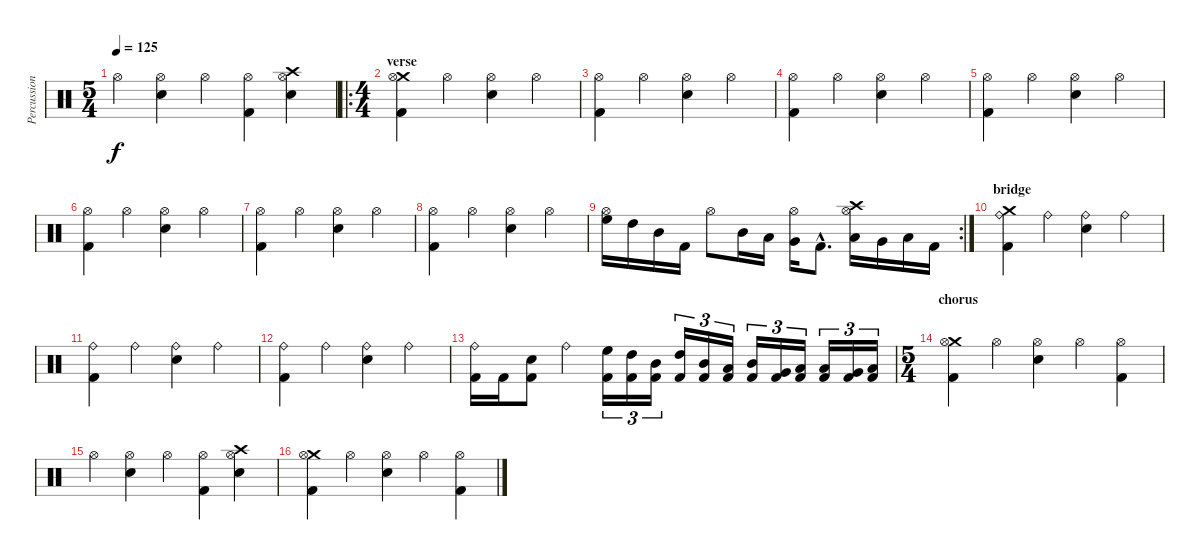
\track ("Percussion" "Percussion") {instrument percussion}
\staff {score}
\articulation defaults
\ts (5 4)
\tempo 125
\clef neutral
\ks c "Hi-Hat (open)".4{dy f}
("Hi-Hat (open)" "Electric Snare (hit)").4 "Hi-Hat (open)".4 ("Hi-Hat (open)" "Kick (hit) 2").4 ("Crash high (hit)" "Hi-Hat (open)" "Electric Snare (hit)").4 |
\ro
\ts (4 4)
\section ("" "verse")
("Crash medium (hit)" "Hi-Hat (open)" "Kick (hit) 2").4 "Hi-Hat (open)".4 ("Hi-Hat (open)" "Electric Snare (hit)").4 "Hi-Hat (open)".4 |
("Hi-Hat (open)" "Kick (hit) 2").4 "Hi-Hat (open)".4 ("Hi-Hat (open)" "Electric Snare (hit)").4 "Hi-Hat (open)".4 |
("Hi-Hat (open)" "Kick (hit) 2").4 "Hi-Hat (open)".4 ("Hi-Hat (open)" "Electric Snare (hit)").4 "Hi-Hat (open)".4 |
("Hi-Hat (open)" "Kick (hit) 2").4 "Hi-Hat (open)".4 ("Hi-Hat (open)" "Electric Snare (hit)").4 "Hi-Hat (open)".4 |
("Hi-Hat (open)" "Kick (hit) 2").4 "Hi-Hat (open)".4 ("Hi-Hat (open)" "Electric Snare (hit)").4 "Hi-Hat (open)".4 |
("Hi-Hat (open)" "Kick (hit) 2").4 "Hi-Hat (open)".4 ("Hi-Hat (open)" "Electric Snare (hit)").4 "Hi-Hat (open)".4 |
("Hi-Hat (open)" "Kick (hit) 2").4 "Hi-Hat (open)".4 ("Hi-Hat (open)" "Electric Snare (hit)").4 "Hi-Hat (open)".4 |
\rc 2
("Hi-Hat (open)" "High Floor Tom (hit)").16 "High Tom (hit)".16 "Mid Tom (hit)".16 "Kick (hit) 2".16 "Hi-Hat (open)".8 "Mid Tom (hit)".16 "Low Tom (hit)".16 ("Hi-Hat (open)" "Very Low Tom (hit)").16 "Kick (hit) 2"{hac}.8{d} ("Crash high (hit)" "Hi-Hat (open)" "Low Tom (hit)").16 "Very Low Tom (hit)".16 "Low Floor Tom (hit)".16 "Kick (hit) 2".16 |
\section ("" "bridge")
("Crash medium (hit)" "Ride (bell)" "Kick (hit) 2").4 "Ride (bell)".4 ("Ride (bell)" "Electric Snare (hit)").4 "Ride (bell)".4 |
("Ride (bell)" "Kick (hit) 2").4 "Ride (bell)".4 ("Ride (bell)" "Electric Snare (hit)").4 "Ride (bell)".4 |
("Ride (bell)" "Kick (hit) 2").4 "Ride (bell)".4 ("Ride (bell)" "Electric Snare (hit)").4 "Ride (bell)".4 |
("Ride (bell)" "Kick (hit) 2").16 "Kick (hit) 2".16 ("Electric Snare (hit)" "Kick (hit) 2").8 "Ride (bell)".4 ("High Floor Tom (hit)" "Kick (hit) 2").16{tu (3 2)} ("High Tom (hit)" "Kick (hit) 2").16{tu (3 2)} ("Mid Tom (hit)" "Kick (hit) 2").16{tu (3 2)} ("High Tom (hit)" "Kick (hit) 2").16{tu (3 2)} ("Mid Tom (hit)" "Kick (hit) 2").16{tu (3 2)} ("Low Tom (hit)" "Kick (hit) 2").16{tu (3 2)} ("Mid Tom (hit)" "Kick (hit) 2").16{tu (3 2)} ("Very Low Tom (hit)" "Kick (hit) 2").16{tu (3 2)} ("Low Floor Tom (hit)" "Kick (hit) 2").16{tu (3 2)} ("Kick (hit) 2" "Low Tom (hit)").16{tu (3 2)} ("Kick (hit) 2" "Very Low Tom (hit)").16{tu (3 2)} ("Kick (hit) 2" "Low Floor Tom (hit)").16{tu (3 2)} |
\ts (5 4)
\section ("" "chorus")
("Crash medium (hit)" "Hi-Hat (open)" "Kick (hit) 2").4 "Hi-Hat (open)".4 ("Hi-Hat (open)" "Electric Snare (hit)").4 "Hi-Hat (open)".4 ("Hi-Hat (open)" "Kick (hit) 2").4 |
"Hi-Hat (open)".4 ("Hi-Hat (open)" "Electric Snare (hit)").4 "Hi-Hat (open)".4 ("Hi-Hat (open)" "Kick (hit) 2").4 ("Crash high (hit)" "Hi-Hat (open)" "Electric Snare (hit)").4 |
("Crash medium (hit)" "Hi-Hat (open)" "Kick (hit) 2").4 "Hi-Hat (open)".4 ("Hi-Hat (open)" "Electric Snare (hit)").4 "Hi-Hat (open)".4 ("Hi-Hat (open)" "Kick (hit) 2").4
